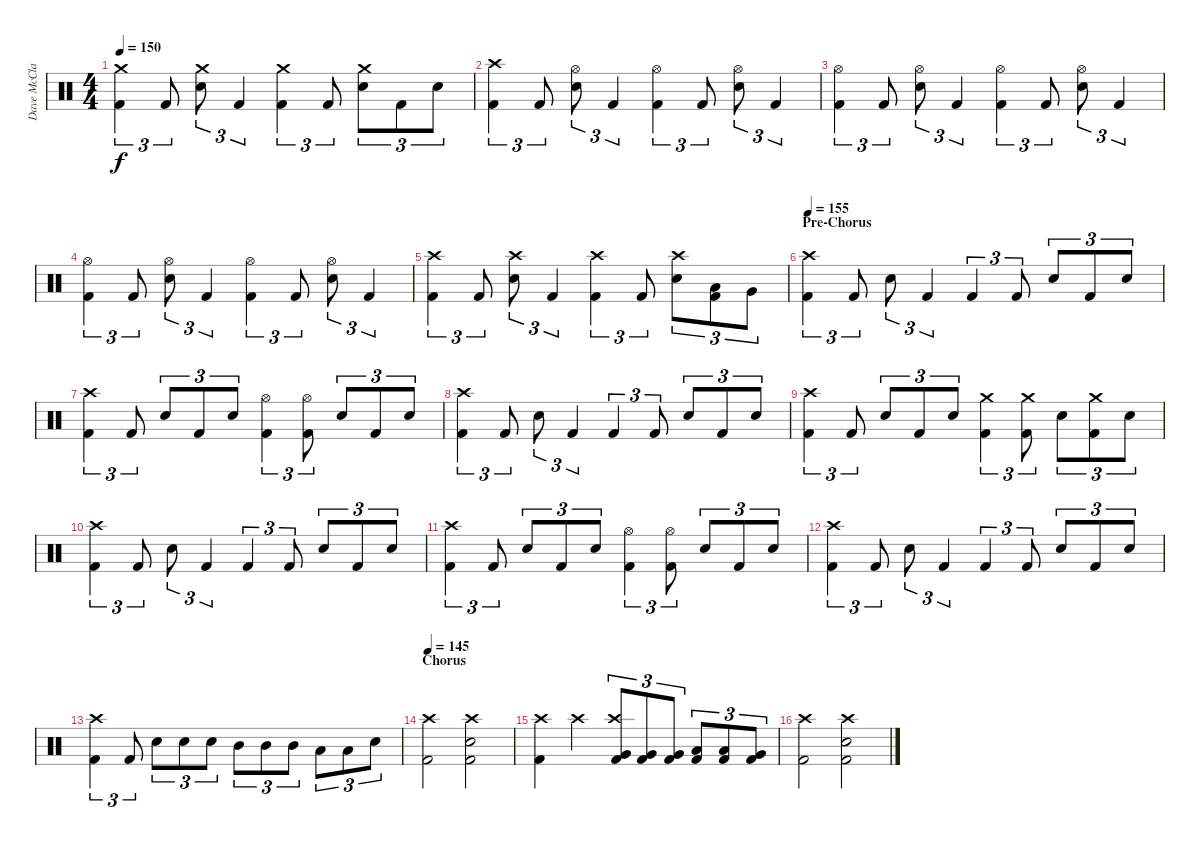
\track ("Dave McClain" "Dave McCla") {instrument percussion}
\staff {score}
\articulation defaults
\ts (4 4)
\tempo 150
\clef neutral
\ks c
("Crash medium (hit)" "Kick (hit) 2").4{tu (3 2) dy f} "Kick (hit) 2".8{tu (3 2)} ("Crash medium (hit)" "Electric Snare (hit)").8{tu (3 2)} "Kick (hit) 2".4{tu (3 2)} ("Crash medium (hit)" "Kick (hit) 2").4{tu (3 2)} "Kick (hit) 2".8{tu (3 2)} ("Crash medium (hit)" "Electric Snare (hit)").8{tu (3 2)} "Kick (hit) 2".8{tu (3 2)} "Electric Snare (hit)".8{tu (3 2)} |
("Crash high (hit)" "Kick (hit) 2").4{tu (3 2)} "Kick (hit) 2".8{tu (3 2)} ("Hi-Hat (open)" "Electric Snare (hit)").8{tu (3 2)} "Kick (hit) 2".4{tu (3 2)} ("Hi-Hat (open)" "Kick (hit) 2").4{tu (3 2)} "Kick (hit) 2".8{tu (3 2)} ("Hi-Hat (open)" "Electric Snare (hit)").8{tu (3 2)} "Kick (hit) 2".4{tu (3 2)} |
("Hi-Hat (open)" "Kick (hit) 2").4{tu (3 2)} "Kick (hit) 2".8{tu (3 2)} ("Hi-Hat (open)" "Electric Snare (hit)").8{tu (3 2)} "Kick (hit) 2".4{tu (3 2)} ("Hi-Hat (open)" "Kick (hit) 2").4{tu (3 2)} "Kick (hit) 2".8{tu (3 2)} ("Hi-Hat (open)" "Electric Snare (hit)").8{tu (3 2)} "Kick (hit) 2".4{tu (3 2)} |
("Hi-Hat (open)" "Kick (hit) 2").4{tu (3 2)} "Kick (hit) 2".8{tu (3 2)} ("Hi-Hat (open)" "Electric Snare (hit)").8{tu (3 2)} "Kick (hit) 2".4{tu (3 2)} ("Hi-Hat (open)" "Kick (hit) 2").4{tu (3 2)} "Kick (hit) 2".8{tu (3 2)} ("Hi-Hat (open)" "Electric Snare (hit)").8{tu (3 2)} "Kick (hit) 2".4{tu (3 2)} |
("Crash high (hit)" "Kick (hit) 2").4{tu (3 2)} "Kick (hit) 2".8{tu (3 2)} ("Crash high (hit)" "Electric Snare (hit)").8{tu (3 2)} "Kick (hit) 2".4{tu (3 2)} ("Crash high (hit)" "Kick (hit) 2").4{tu (3 2)} "Kick (hit) 2".8{tu (3 2)} ("Crash high (hit)" "Electric Snare (hit)").8{tu (3 2)} ("Low Tom (hit)" "Kick (hit) 2").8{tu (3 2)} "Very Low Tom (hit)".8{tu (3 2)} |
\section ("" "Pre-Chorus")
\tempo 155
("Crash high (hit)" "Kick (hit) 2").4{tu (3 2)} "Kick (hit) 2".8{tu (3 2)} "Electric Snare (hit)".8{tu (3 2)} "Kick (hit) 2".4{tu (3 2)} "Kick (hit) 2".4{tu (3 2)} "Kick (hit) 2".8{tu (3 2)} "Electric Snare (hit)".8{tu (3 2)} "Kick (hit) 2".8{tu (3 2)} "Electric Snare (hit)".8{tu (3 2)} |
("Crash high (hit)" "Kick (hit) 2").4{tu (3 2)} "Kick (hit) 2".8{tu (3 2)} "Electric Snare (hit)".8{tu (3 2)} "Kick (hit) 2".8{tu (3 2)} "Electric Snare (hit)".8{tu (3 2)} ("Hi-Hat (open)" "Kick (hit) 2").4{tu (3 2)} ("Hi-Hat (open)" "Kick (hit) 2").8{tu (3 2)} "Electric Snare (hit)".8{tu (3 2)} "Kick (hit) 2".8{tu (3 2)} "Electric Snare (hit)".8{tu (3 2)} |
("Crash high (hit)" "Kick (hit) 2").4{tu (3 2)} "Kick (hit) 2".8{tu (3 2)} "Electric Snare (hit)".8{tu (3 2)} "Kick (hit) 2".4{tu (3 2)} "Kick (hit) 2".4{tu (3 2)} "Kick (hit) 2".8{tu (3 2)} "Electric Snare (hit)".8{tu (3 2)} "Kick (hit) 2".8{tu (3 2)} "Electric Snare (hit)".8{tu (3 2)} |
("Crash high (hit)" "Kick (hit) 2").4{tu (3 2)} "Kick (hit) 2".8{tu (3 2)} "Electric Snare (hit)".8{tu (3 2)} "Kick (hit) 2".8{tu (3 2)} "Electric Snare (hit)".8{tu (3 2)} ("Crash medium (hit)" "Kick (hit) 2").4{tu (3 2)} ("Crash medium (hit)" "Kick (hit) 2").8{tu (3 2)} "Electric Snare (hit)".8{tu (3 2)} ("Crash medium (hit)" "Kick (hit) 2").8{tu (3 2)} "Electric Snare (hit)".8{tu (3 2)} |
("Crash high (hit)" "Kick (hit) 2").4{tu (3 2)} "Kick (hit) 2".8{tu (3 2)} "Electric Snare (hit)".8{tu (3 2)} "Kick (hit) 2".4{tu (3 2)} "Kick (hit) 2".4{tu (3 2)} "Kick (hit) 2".8{tu (3 2)} "Electric Snare (hit)".8{tu (3 2)} "Kick (hit) 2".8{tu (3 2)} "Electric Snare (hit)".8{tu (3 2)} |
("Crash high (hit)" "Kick (hit) 2").4{tu (3 2)} "Kick (hit) 2".8{tu (3 2)} "Electric Snare (hit)".8{tu (3 2)} "Kick (hit) 2".8{tu (3 2)} "Electric Snare (hit)".8{tu (3 2)} ("Hi-Hat (open)" "Kick (hit) 2").4{tu (3 2)} ("Hi-Hat (open)" "Kick (hit) 2").8{tu (3 2)} "Electric Snare (hit)".8{tu (3 2)} "Kick (hit) 2".8{tu (3 2)} "Electric Snare (hit)".8{tu (3 2)} |
("Crash high (hit)" "Kick (hit) 2").4{tu (3 2)} "Kick (hit) 2".8{tu (3 2)} "Electric Snare (hit)".8{tu (3 2)} "Kick (hit) 2".4{tu (3 2)} "Kick (hit) 2".4{tu (3 2)} "Kick (hit) 2".8{tu (3 2)} "Electric Snare (hit)".8{tu (3 2)} "Kick (hit) 2".8{tu (3 2)} "Electric Snare (hit)".8{tu (3 2)} |
("Crash high (hit)" "Kick (hit) 2").4{tu (3 2)} "Kick (hit) 2".8{tu (3 2)} "Electric Snare (hit)".8{tu (3 2)} "Electric Snare (hit)".8{tu (3 2)} "Electric Snare (hit)".8{tu (3 2)} "Mid Tom (hit)".8{tu (3 2)} "Mid Tom (hit)".8{tu (3 2)} "Mid Tom (hit)".8{tu (3 2)} "Low Tom (hit)".8{tu (3 2)} "Low Tom (hit)".8{tu (3 2)} "Electric Snare (hit)".8{tu (3 2)} |
\section ("" "Chorus")
\tempo 145
("Crash high (hit)" "Kick (hit) 2").2 ("Crash high (hit)" "Electric Snare (hit)" "Kick (hit) 2").2 |
("Crash high (hit)" "Kick (hit) 2").4 "Crash high (hit)".4 ("Crash high (hit)" "Very Low Tom (hit)" "Kick (hit) 2").8{tu (3 2)} ("Very Low Tom (hit)" "Kick (hit) 2").8{tu (3 2)} ("Very Low Tom (hit)" "Kick (hit) 2").8{tu (3 2)} ("Low Tom (hit)" "Kick (hit) 2").8{tu (3 2)} ("Low Tom (hit)" "Kick (hit) 2").8{tu (3 2)} ("Very Low Tom (hit)" "Kick (hit) 2").8{tu (3 2)} |
("Crash high (hit)" "Kick (hit) 2").2 ("Crash high (hit)" "Electric Snare (hit)" "Kick (hit) 2").2
